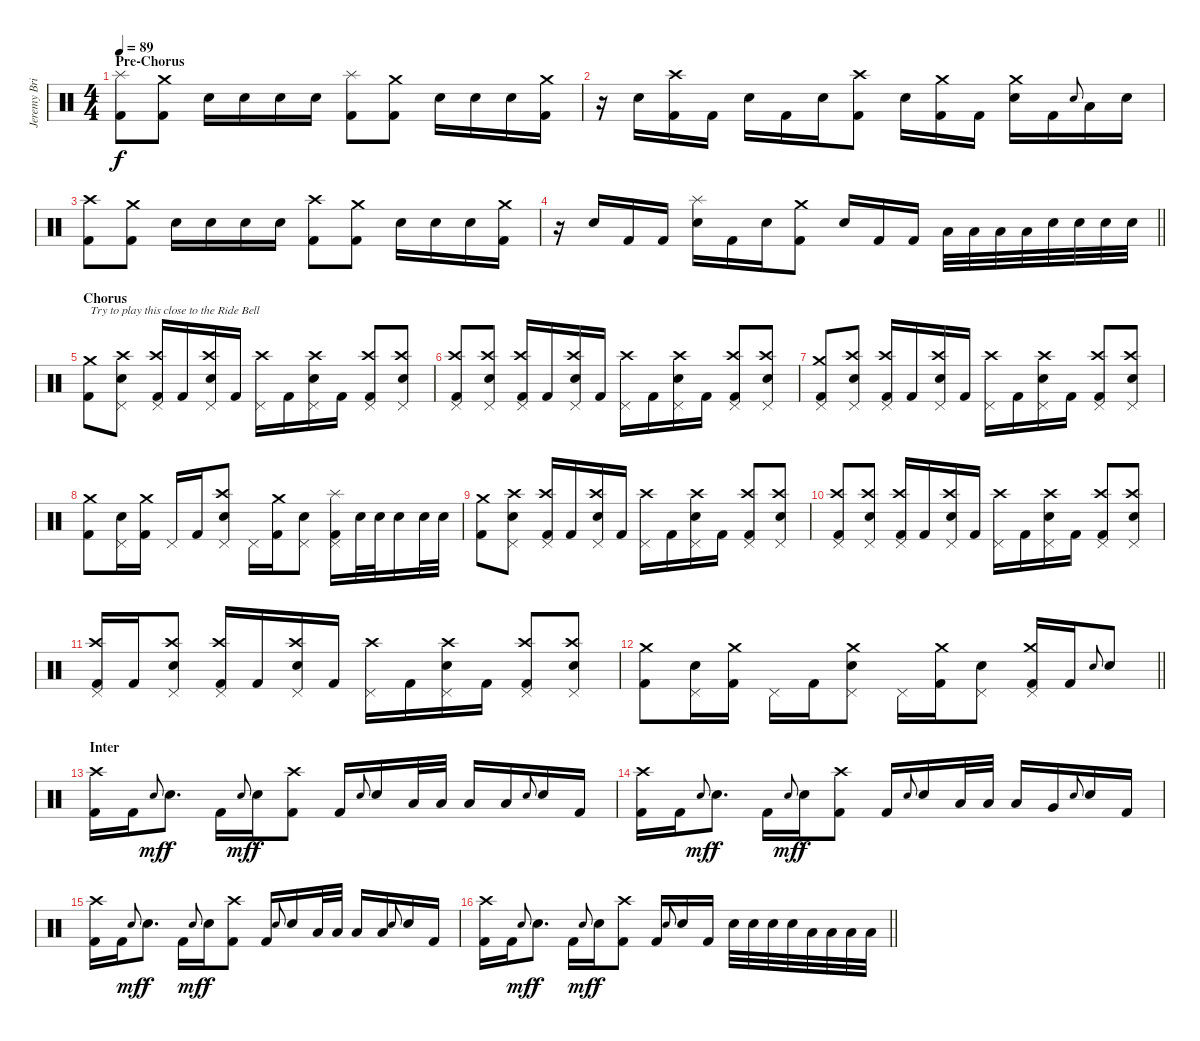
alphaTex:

\track ("Jeremy Brian [Drums]" "Jeremy Bri") {instrument percussion}
\staff {score}
\articulation defaults
\ts (4 4)
\section ("" "Pre-Chorus")
\tempo 89
\clef neutral
\ks c
("Splash (hit)" "Kick (hit) 2").8{dy f} ("Crash medium (hit)" "Kick (hit) 2").8 "Electric Snare (hit)".16 "Electric Snare (hit)".16 "Electric Snare (hit)".16 "Electric Snare (hit)".16 ("Splash (hit)" "Kick (hit) 2").8 ("Crash medium (hit)" "Kick (hit) 2").8 "Electric Snare (hit)".16 "Electric Snare (hit)".16 "Electric Snare (hit)".16 ("Crash medium (hit)" "Kick (hit) 2").16 |
r.16 "Electric Snare (hit)".16 ("Crash high (hit)" "Kick (hit) 2").16 "Kick (hit) 2".16 "Electric Snare (hit)".16 "Kick (hit) 2".16 "Electric Snare (hit)".16 ("Crash high (hit)" "Kick (hit) 2").8 "Electric Snare (hit)".16 ("Crash medium (hit)" "Kick (hit) 2").16 "Kick (hit) 2".16 ("Crash medium (hit)" "Electric Snare (hit)").16 "Kick (hit) 2".16 "Electric Snare (hit)".8{gr onbeat} "Low Floor Tom (hit)".16 "Electric Snare (hit)".16 |
("Crash high (hit)" "Kick (hit) 2").8 ("Crash medium (hit)" "Kick (hit) 2").8 "Electric Snare (hit)".16 "Electric Snare (hit)".16 "Electric Snare (hit)".16 "Electric Snare (hit)".16 ("Crash high (hit)" "Kick (hit) 2").8 ("Crash medium (hit)" "Kick (hit) 2").8 "Electric Snare (hit)".16 "Electric Snare (hit)".16 "Electric Snare (hit)".16 ("Crash medium (hit)" "Kick (hit) 2").16 |
\barLineRight lightlight
r.16 "Electric Snare (hit)".16 "Kick (hit) 2".16 "Kick (hit) 2".16 ("Splash (hit)" "Electric Snare (hit)").16 "Kick (hit) 2".16 "Electric Snare (hit)".16 ("Crash medium (hit)" "Kick (hit) 2").8 "Electric Snare (hit)".16 "Kick (hit) 2".16 "Kick (hit) 2".16 "Low Tom (hit)".32 "Low Tom (hit)".32 "Low Tom (hit)".32 "Low Tom (hit)".32 "Electric Snare (hit)".32 "Electric Snare (hit)".32 "Electric Snare (hit)".32 "Electric Snare (hit)".32 |
\section ("" "Chorus")
("Crash medium (hit)" "Kick (hit) 2").8{txt "Try to play this close to the Ride Bell"} ("Crash high (hit)" "Pedal Hi-Hat (hit)" "Electric Snare (hit)").8 ("Crash high (hit)" "Pedal Hi-Hat (hit)" "Kick (hit) 2").16 "Kick (hit) 2".16 ("Crash high (hit)" "Pedal Hi-Hat (hit)" "Electric Snare (hit)").16 "Kick (hit) 2".16 ("Crash high (hit)" "Pedal Hi-Hat (hit)").16 "Kick (hit) 2".16 ("Crash high (hit)" "Pedal Hi-Hat (hit)" "Electric Snare (hit)").16 "Kick (hit) 2".16 ("Crash high (hit)" "Pedal Hi-Hat (hit)" "Kick (hit) 2").8 ("Crash high (hit)" "Pedal Hi-Hat (hit)" "Electric Snare (hit)").8 |
("Crash high (hit)" "Pedal Hi-Hat (hit)" "Kick (hit) 2").8 ("Crash high (hit)" "Pedal Hi-Hat (hit)" "Electric Snare (hit)").8 ("Crash high (hit)" "Pedal Hi-Hat (hit)" "Kick (hit) 2").16 "Kick (hit) 2".16 ("Crash high (hit)" "Pedal Hi-Hat (hit)" "Electric Snare (hit)").16 "Kick (hit) 2".16 ("Crash high (hit)" "Pedal Hi-Hat (hit)").16 "Kick (hit) 2".16 ("Crash high (hit)" "Pedal Hi-Hat (hit)" "Electric Snare (hit)").16 "Kick (hit) 2".16 ("Crash high (hit)" "Pedal Hi-Hat (hit)" "Kick (hit) 2").8 ("Crash high (hit)" "Pedal Hi-Hat (hit)" "Electric Snare (hit)").8 |
("Crash medium (hit)" "Pedal Hi-Hat (hit)" "Kick (hit) 2").8 ("Crash high (hit)" "Pedal Hi-Hat (hit)" "Electric Snare (hit)").8 ("Crash high (hit)" "Pedal Hi-Hat (hit)" "Kick (hit) 2").16 "Kick (hit) 2".16 ("Crash high (hit)" "Pedal Hi-Hat (hit)" "Electric Snare (hit)").16 "Kick (hit) 2".16 ("Crash high (hit)" "Pedal Hi-Hat (hit)").16 "Kick (hit) 2".16 ("Crash high (hit)" "Pedal Hi-Hat (hit)" "Electric Snare (hit)").16 "Kick (hit) 2".16 ("Crash high (hit)" "Pedal Hi-Hat (hit)" "Kick (hit) 2").8 ("Crash high (hit)" "Pedal Hi-Hat (hit)" "Electric Snare (hit)").8 |
("Crash medium (hit)" "Kick (hit) 2").8 ("Pedal Hi-Hat (hit)" "Electric Snare (hit)").16 ("Crash medium (hit)" "Kick (hit) 2").16 "Pedal Hi-Hat (hit)".16 "Kick (hit) 2".16 ("Crash high (hit)" "Pedal Hi-Hat (hit)" "Electric Snare (hit)").8 "Pedal Hi-Hat (hit)".16 ("Crash medium (hit)" "Kick (hit) 2").16 ("Pedal Hi-Hat (hit)" "Electric Snare (hit)").8 ("Splash (hit)" "Pedal Hi-Hat (hit)" "Kick (hit) 2").16 "Electric Snare (hit)".32 "Electric Snare (hit)".32 "Electric Snare (hit)".16 "Electric Snare (hit)".32 "Electric Snare (hit)".32 |
("Crash medium (hit)" "Kick (hit) 2").8 ("Crash high (hit)" "Pedal Hi-Hat (hit)" "Electric Snare (hit)").8 ("Crash high (hit)" "Pedal Hi-Hat (hit)" "Kick (hit) 2").16 "Kick (hit) 2".16 ("Crash high (hit)" "Pedal Hi-Hat (hit)" "Electric Snare (hit)").16 "Kick (hit) 2".16 ("Crash high (hit)" "Pedal Hi-Hat (hit)").16 "Kick (hit) 2".16 ("Crash high (hit)" "Pedal Hi-Hat (hit)" "Electric Snare (hit)").16 "Kick (hit) 2".16 ("Crash high (hit)" "Pedal Hi-Hat (hit)" "Kick (hit) 2").8 ("Crash high (hit)" "Pedal Hi-Hat (hit)" "Electric Snare (hit)").8 |
("Crash high (hit)" "Pedal Hi-Hat (hit)" "Kick (hit) 2").8 ("Crash high (hit)" "Pedal Hi-Hat (hit)" "Electric Snare (hit)").8 ("Crash high (hit)" "Pedal Hi-Hat (hit)" "Kick (hit) 2").16 "Kick (hit) 2".16 ("Crash high (hit)" "Pedal Hi-Hat (hit)" "Electric Snare (hit)").16 "Kick (hit) 2".16 ("Crash high (hit)" "Pedal Hi-Hat (hit)").16 "Kick (hit) 2".16 ("Crash high (hit)" "Pedal Hi-Hat (hit)" "Electric Snare (hit)").16 "Kick (hit) 2".16 ("Crash high (hit)" "Pedal Hi-Hat (hit)" "Kick (hit) 2").8 ("Crash high (hit)" "Pedal Hi-Hat (hit)" "Electric Snare (hit)").8 |
("Crash high (hit)" "Pedal Hi-Hat (hit)" "Kick (hit) 2").16 "Kick (hit) 2".16 ("Crash high (hit)" "Pedal Hi-Hat (hit)" "Electric Snare (hit)").8 ("Crash high (hit)" "Pedal Hi-Hat (hit)" "Kick (hit) 2").16 "Kick (hit) 2".16 ("Crash high (hit)" "Pedal Hi-Hat (hit)" "Electric Snare (hit)").16 "Kick (hit) 2".16 ("Crash high (hit)" "Pedal Hi-Hat (hit)").16 "Kick (hit) 2".16 ("Crash high (hit)" "Pedal Hi-Hat (hit)" "Electric Snare (hit)").16 "Kick (hit) 2".16 ("Crash high (hit)" "Pedal Hi-Hat (hit)" "Kick (hit) 2").8 ("Crash high (hit)" "Pedal Hi-Hat (hit)" "Electric Snare (hit)").8 |
\barLineRight lightlight
("Crash medium (hit)" "Kick (hit) 2").8 ("Pedal Hi-Hat (hit)" "Electric Snare (hit)").16 ("Crash medium (hit)" "Kick (hit) 2").16 "Pedal Hi-Hat (hit)".16 "Kick (hit) 2".16 ("Crash medium (hit)" "Pedal Hi-Hat (hit)" "Electric Snare (hit)").8 "Pedal Hi-Hat (hit)".16 ("Crash medium (hit)" "Kick (hit) 2").16 ("Pedal Hi-Hat (hit)" "Electric Snare (hit)").8 ("Crash medium (hit)" "Pedal Hi-Hat (hit)" "Kick (hit) 2").16 "Kick (hit) 2".16 "Electric Snare (hit)".8{gr onbeat} "Electric Snare (hit)".8 |
\section ("" "Inter")
("Crash high (hit)" "Kick (hit) 2").16 "Kick (hit) 2".16 "Electric Snare (hit)".8{gr onbeat dy mf} "Electric Snare (hit)".8{d dy f} "Kick (hit) 2".16 "Electric Snare (hit)".8{gr onbeat dy mf} "Electric Snare (hit)".16{dy f} ("Crash high (hit)" "Kick (hit) 2").8 "Kick (hit) 2".16 "Electric Snare (hit)".8{gr onbeat} "Electric Snare (hit)".16 "Low Tom (hit)".32{balance 0} "Low Tom (hit)".32 "Low Tom (hit)".16 "Low Tom (hit)".16 "Electric Snare (hit)".8{gr onbeat} "Electric Snare (hit)".16{balance 8} "Kick (hit) 2".16 |
("Crash high (hit)" "Kick (hit) 2").16 "Kick (hit) 2".16 "Electric Snare (hit)".8{gr onbeat dy mf} "Electric Snare (hit)".8{d dy f} "Kick (hit) 2".16 "Electric Snare (hit)".8{gr onbeat dy mf} "Electric Snare (hit)".16{dy f} ("Crash high (hit)" "Kick (hit) 2").8 "Kick (hit) 2".16 "Electric Snare (hit)".8{gr onbeat} "Electric Snare (hit)".16 "Low Tom (hit)".32{balance 0} "Low Tom (hit)".32 "Low Tom (hit)".16 "Very Low Tom (hit)".16{balance 16} "Electric Snare (hit)".8{gr onbeat} "Electric Snare (hit)".16{balance 8} "Kick (hit) 2".16 |
("Crash high (hit)" "Kick (hit) 2").16 "Kick (hit) 2".16 "Electric Snare (hit)".8{gr onbeat dy mf} "Electric Snare (hit)".8{d dy f} "Kick (hit) 2".16 "Electric Snare (hit)".8{gr onbeat dy mf} "Electric Snare (hit)".16{dy f} ("Crash high (hit)" "Kick (hit) 2").8 "Kick (hit) 2".16 "Electric Snare (hit)".8{gr onbeat} "Electric Snare (hit)".16 "Low Tom (hit)".32{balance 0} "Low Tom (hit)".32 "Low Tom (hit)".16 "Low Tom (hit)".16 "Electric Snare (hit)".8{gr onbeat} "Electric Snare (hit)".16{balance 8} "Kick (hit) 2".16 |
\barLineRight lightlight
("Crash high (hit)" "Kick (hit) 2").16 "Kick (hit) 2".16 "Electric Snare (hit)".8{gr onbeat dy mf} "Electric Snare (hit)".8{d dy f} "Kick (hit) 2".16 "Electric Snare (hit)".8{gr onbeat dy mf} "Electric Snare (hit)".16{dy f} ("Crash high (hit)" "Kick (hit) 2").8 "Kick (hit) 2".16 "Electric Snare (hit)".8{gr onbeat} "Electric Snare (hit)".16 "Kick (hit) 2".16 "Electric Snare (hit)".32 "Electric Snare (hit)".32 "Electric Snare (hit)".32 "Electric Snare (hit)".32 "Low Tom (hit)".32{balance 0} "Low Tom (hit)".32 "Low Tom (hit)".32 "Low Tom (hit)".32
